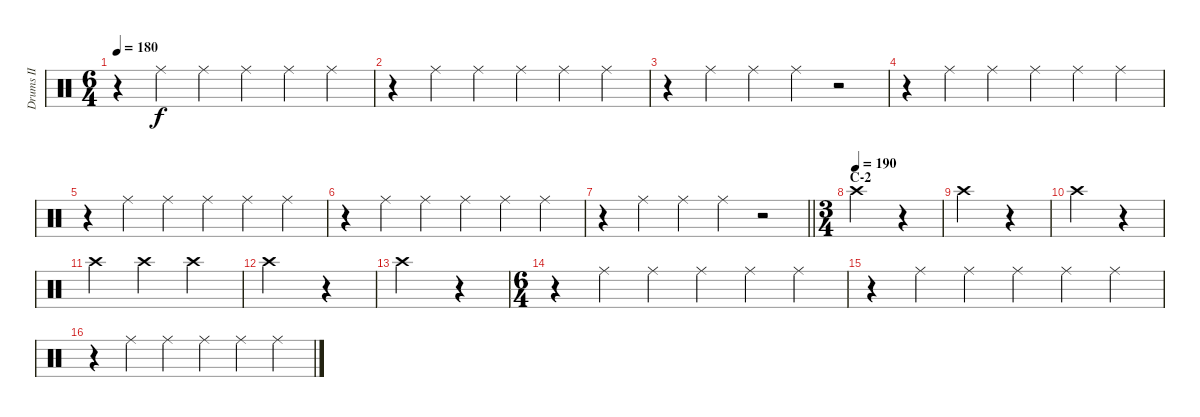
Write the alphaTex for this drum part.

\track ("Drums II" "Drums II") {instrument percussion}
\staff {score}
\articulation defaults
\ts (6 4)
\tempo 180
\clef neutral
\ks c
r.4{dy f} "Ride (middle)".4 "Ride (middle)".4 "Ride (middle)".4 "Ride (middle)".4 "Ride (middle)".4 |
r.4 "Ride (middle)".4 "Ride (middle)".4 "Ride (middle)".4 "Ride (middle)".4 "Ride (middle)".4 |
r.4 "Ride (middle)".4 "Ride (middle)".4 "Ride (middle)".4 r.2 |
r.4 "Ride (middle)".4 "Ride (middle)".4 "Ride (middle)".4 "Ride (middle)".4 "Ride (middle)".4 |
r.4 "Ride (middle)".4 "Ride (middle)".4 "Ride (middle)".4 "Ride (middle)".4 "Ride (middle)".4 |
r.4 "Ride (middle)".4 "Ride (middle)".4 "Ride (middle)".4 "Ride (middle)".4 "Ride (middle)".4 |
\barLineRight lightlight
r.4 "Ride (middle)".4 "Ride (middle)".4 "Ride (middle)".4 r.2 |
\ts (3 4)
\section ("" "C-2")
\tempo (190)
"Crash high (hit)".2 r.4 |
"Crash high (hit)".2 r.4 |
"Crash high (hit)".2 r.4 |
"Crash high (hit)".4 "Crash high (hit)".4 "Crash high (hit)".4 |
"Crash high (hit)".2 r.4 |
"Crash high (hit)".2 r.4 |
\ts (6 4)
r.4 "Ride (middle)".4 "Ride (middle)".4 "Ride (middle)".4 "Ride (middle)".4 "Ride (middle)".4 |
r.4 "Ride (middle)".4 "Ride (middle)".4 "Ride (middle)".4 "Ride (middle)".4 "Ride (middle)".4 |
r.4 "Ride (middle)".4 "Ride (middle)".4 "Ride (middle)".4 "Ride (middle)".4 "Ride (middle)".4
